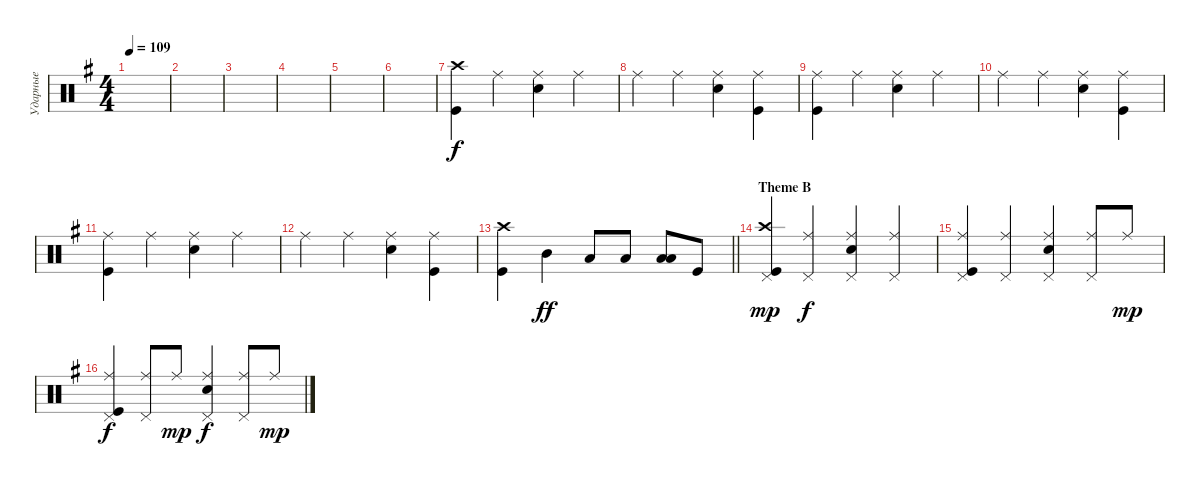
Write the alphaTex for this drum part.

\track ("Ударные" "Ударные") {instrument percussion}
\staff {score}
\articulation defaults
\ts (4 4)
\tempo 109
\clef neutral
\ks eminor
|
|
|
|
|
|
("Kick (hit)" "Crash high (hit)").4 "Ride (middle)".4 ("Ride (middle)" "Snare (hit) 2").4 "Ride (middle)".4 |
"Ride (middle)".4 "Ride (middle)".4 ("Ride (middle)" "Snare (hit) 2").4 ("Ride (middle)" "Kick (hit)").4 |
("Ride (middle)" "Kick (hit)").4 "Ride (middle)".4 ("Ride (middle)" "Snare (hit) 2").4 "Ride (middle)".4 |
"Ride (middle)".4 "Ride (middle)".4 ("Ride (middle)" "Snare (hit) 2").4 ("Ride (middle)" "Kick (hit)").4 |
("Ride (middle)" "Kick (hit)").4 "Ride (middle)".4 ("Ride (middle)" "Snare (hit) 2").4 "Ride (middle)".4 |
"Ride (middle)".4 "Ride (middle)".4 ("Ride (middle)" "Snare (hit) 2").4 ("Ride (middle)" "Kick (hit)").4 |
\barLineRight lightlight
("Kick (hit)" "Crash high (hit)").4 "Mid Tom (hit)".4{dy ff} "Low Tom (hit)".8 "Low Tom (hit)".8 ("Low Tom (hit)" "Low Tom (hit)").8{bd 240} "Kick (hit)".8 |
\section ("" "Theme B")
("Kick (hit)" "Crash high (hit)" "Pedal Hi-Hat (hit)").4{dy mp} ("Ride (middle)" "Pedal Hi-Hat (hit)").4{dy f} ("Ride (middle)" "Pedal Hi-Hat (hit)" "Snare (hit) 2").4 ("Ride (middle)" "Pedal Hi-Hat (hit)").4 |
("Ride (middle)" "Pedal Hi-Hat (hit)" "Kick (hit)").4 ("Ride (middle)" "Pedal Hi-Hat (hit)").4 ("Ride (middle)" "Pedal Hi-Hat (hit)" "Snare (hit) 2").4 ("Ride (middle)" "Pedal Hi-Hat (hit)").8 "Ride (middle)".8{dy mp} |
("Ride (middle)" "Pedal Hi-Hat (hit)" "Kick (hit)").4{dy f} ("Ride (middle)" "Pedal Hi-Hat (hit)").8 "Ride (middle)".8{dy mp} ("Ride (middle)" "Pedal Hi-Hat (hit)" "Snare (hit) 2").4{dy f} ("Ride (middle)" "Pedal Hi-Hat (hit)").8 "Ride (middle)".8{dy mp}
